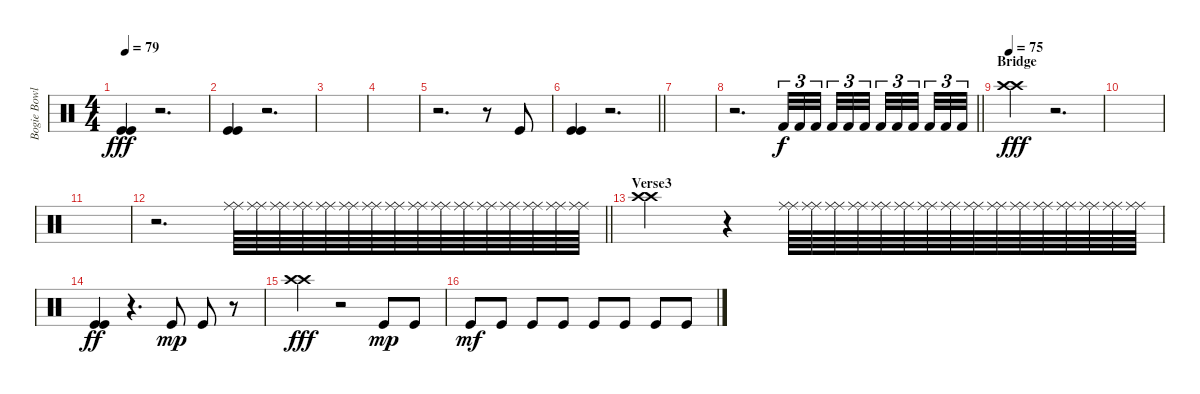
\track ("Bogie Bowles" "Bogie Bowl") {instrument percussion}
\staff {score}
\articulation defaults
\ts (4 4)
\tempo 79
\clef neutral
\ks c
("Kick (hit)" "Kick (hit)").4{dy fff} r.2{d} |
("Kick (hit)" "Kick (hit)").4 r.2{d} |
|
|
r.2{d} r.8 "Kick (hit)".8 |
\barLineRight lightlight
("Kick (hit)" "Kick (hit)").4 r.2{d} |
|
\barLineRight lightlight
r.2{d} "Kick (hit) 2".32{tu (3 2) dy f} "Kick (hit) 2".32{tu (3 2)} "Kick (hit) 2".32{tu (3 2) beam splitsecondary} "Kick (hit) 2".32{tu (3 2)} "Kick (hit) 2".32{tu (3 2)} "Kick (hit) 2".32{tu (3 2) beam splitsecondary} "Kick (hit) 2".32{tu (3 2)} "Kick (hit) 2".32{tu (3 2)} "Kick (hit) 2".32{tu (3 2) beam splitsecondary} "Kick (hit) 2".32{tu (3 2)} "Kick (hit) 2".32{tu (3 2)} "Kick (hit) 2".32{tu (3 2)} |
\section ("" "Bridge")
\tempo 75
("Crash high (hit)" "Crash high (hit)").4{dy fff} r.2{d volume 0} |
|
|
\barLineRight lightlight
r.2{d} ("Ride (middle)" "Ride (middle)").64{volume 16} ("Ride (middle)" "Ride (middle)").64 ("Ride (middle)" "Ride (middle)").64 ("Ride (middle)" "Ride (middle)").64 ("Ride (middle)" "Ride (middle)").64 ("Ride (middle)" "Ride (middle)").64 ("Ride (middle)" "Ride (middle)").64 ("Ride (middle)" "Ride (middle)").64 ("Ride (middle)" "Ride (middle)").64 ("Ride (middle)" "Ride (middle)").64 ("Ride (middle)" "Ride (middle)").64 ("Ride (middle)" "Ride (middle)").64 ("Ride (middle)" "Ride (middle)").64 ("Ride (middle)" "Ride (middle)").64 ("Ride (middle)" "Ride (middle)").64 ("Ride (middle)" "Ride (middle)").64 |
\section ("" "Verse3")
("Crash high (hit)" "Crash high (hit)").2 r.4{volume 0} ("Ride (middle)" "Ride (middle)").64{volume 16} ("Ride (middle)" "Ride (middle)").64 ("Ride (middle)" "Ride (middle)").64 ("Ride (middle)" "Ride (middle)").64 ("Ride (middle)" "Ride (middle)").64 ("Ride (middle)" "Ride (middle)").64 ("Ride (middle)" "Ride (middle)").64 ("Ride (middle)" "Ride (middle)").64 ("Ride (middle)" "Ride (middle)").64 ("Ride (middle)" "Ride (middle)").64 ("Ride (middle)" "Ride (middle)").64 ("Ride (middle)" "Ride (middle)").64 ("Ride (middle)" "Ride (middle)").64 ("Ride (middle)" "Ride (middle)").64 ("Ride (middle)" "Ride (middle)").64 ("Ride (middle)" "Ride (middle)").64 |
("Kick (hit)" "Kick (hit)").4{dy ff} r.4{d} "Kick (hit)".8{dy mp} "Kick (hit)".8 r.8 |
("Crash high (hit)" "Crash high (hit)").4{dy fff volume 16} r.2 "Kick (hit)".8{dy mp} "Kick (hit)".8 |
"Kick (hit)".8{dy mf} "Kick (hit)".8 "Kick (hit)".8 "Kick (hit)".8 "Kick (hit)".8 "Kick (hit)".8 "Kick (hit)".8 "Kick (hit)".8
